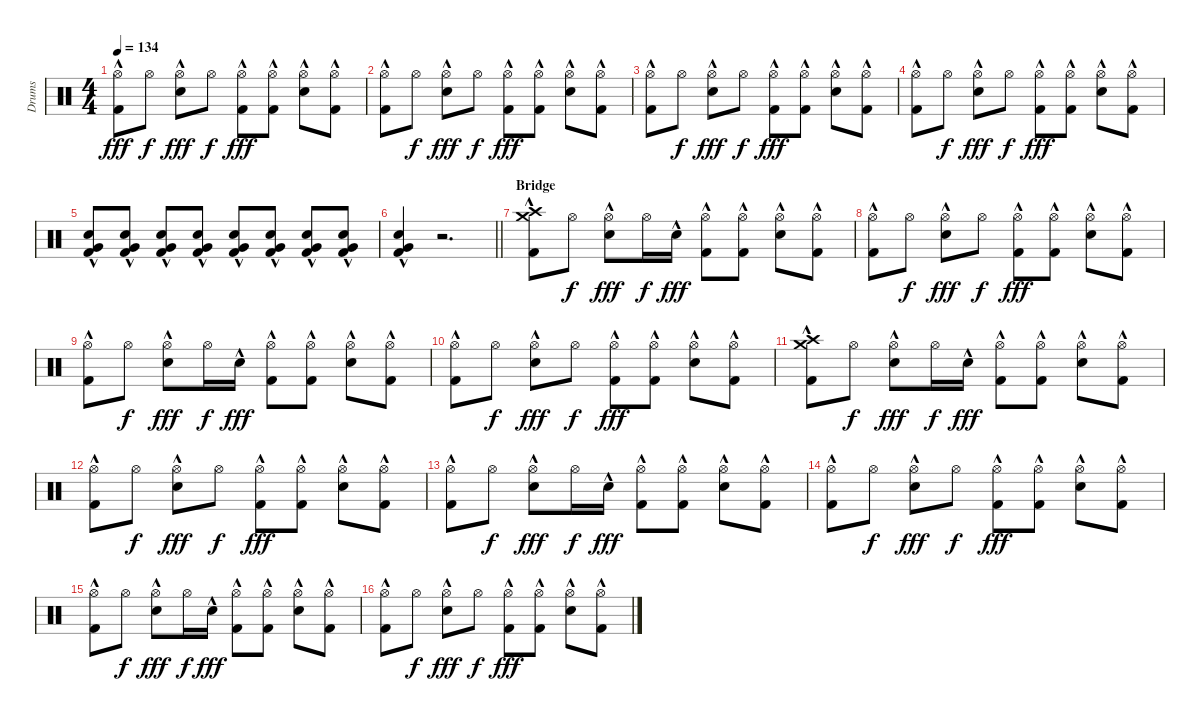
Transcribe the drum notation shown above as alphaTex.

\track ("Drums" "Drums") {instrument percussion}
\staff {score}
\articulation defaults
\ts (4 4)
\tempo 134
\clef neutral
\ks c
("Hi-Hat (open)" "Kick (hit) 2"{hac}).8{dy fff} "Hi-Hat (open)".8{dy f} ("Hi-Hat (open)" "Snare (hit) 2"{hac}).8{dy fff} "Hi-Hat (open)".8{dy f} ("Hi-Hat (open)" "Kick (hit) 2"{hac}).8{dy fff} ("Hi-Hat (open)" "Kick (hit) 2"{hac}).8 ("Hi-Hat (open)" "Snare (hit) 2"{hac}).8 ("Hi-Hat (open)" "Kick (hit) 2"{hac}).8 |
("Hi-Hat (open)" "Kick (hit) 2"{hac}).8 "Hi-Hat (open)".8{dy f} ("Hi-Hat (open)" "Snare (hit) 2"{hac}).8{dy fff} "Hi-Hat (open)".8{dy f} ("Hi-Hat (open)" "Kick (hit) 2"{hac}).8{dy fff} ("Hi-Hat (open)" "Kick (hit) 2"{hac}).8 ("Hi-Hat (open)" "Snare (hit) 2"{hac}).8 ("Hi-Hat (open)" "Kick (hit) 2"{hac}).8 |
("Hi-Hat (open)" "Kick (hit) 2"{hac}).8 "Hi-Hat (open)".8{dy f} ("Hi-Hat (open)" "Snare (hit) 2"{hac}).8{dy fff} "Hi-Hat (open)".8{dy f} ("Hi-Hat (open)" "Kick (hit) 2"{hac}).8{dy fff} ("Hi-Hat (open)" "Kick (hit) 2"{hac}).8 ("Hi-Hat (open)" "Snare (hit) 2"{hac}).8 ("Hi-Hat (open)" "Kick (hit) 2"{hac}).8 |
("Hi-Hat (open)" "Kick (hit) 2"{hac}).8 "Hi-Hat (open)".8{dy f} ("Hi-Hat (open)" "Snare (hit) 2"{hac}).8{dy fff} "Hi-Hat (open)".8{dy f} ("Hi-Hat (open)" "Kick (hit) 2"{hac}).8{dy fff} ("Hi-Hat (open)" "Kick (hit) 2"{hac}).8 ("Hi-Hat (open)" "Snare (hit) 2"{hac}).8 ("Hi-Hat (open)" "Kick (hit) 2"{hac}).8 |
("Snare (hit) 2" "Very Low Tom (hit)"{hac} "Kick (hit) 2"{hac}).8 ("Snare (hit) 2" "Very Low Tom (hit)"{hac} "Kick (hit) 2"{hac}).8 ("Snare (hit) 2" "Very Low Tom (hit)"{hac} "Kick (hit) 2"{hac}).8 ("Snare (hit) 2" "Very Low Tom (hit)"{hac} "Kick (hit) 2"{hac}).8 ("Snare (hit) 2" "Very Low Tom (hit)"{hac} "Kick (hit) 2"{hac}).8 ("Snare (hit) 2" "Very Low Tom (hit)"{hac} "Kick (hit) 2"{hac}).8 ("Snare (hit) 2" "Very Low Tom (hit)"{hac} "Kick (hit) 2"{hac}).8 ("Snare (hit) 2" "Very Low Tom (hit)"{hac} "Kick (hit) 2"{hac}).8 |
\barLineRight lightlight
("Snare (hit) 2"{hac} "Very Low Tom (hit)"{hac} "Kick (hit) 2"{hac}).4 r.2{d} |
\section ("" "Bridge")
("Crash medium (hit)" "Crash high (hit)" "Kick (hit) 2"{hac}).8 "Hi-Hat (open)".8{dy f} ("Hi-Hat (open)" "Snare (hit) 2"{hac}).8{dy fff} "Hi-Hat (open)".16{dy f} "Snare (hit) 2"{hac}.16{dy fff} ("Hi-Hat (open)" "Kick (hit) 2"{hac}).8 ("Hi-Hat (open)"{hac} "Kick (hit) 2"{hac}).8 ("Hi-Hat (open)" "Snare (hit) 2"{hac}).8 ("Hi-Hat (open)" "Kick (hit) 2"{hac}).8 |
("Hi-Hat (open)" "Kick (hit) 2"{hac}).8 "Hi-Hat (open)".8{dy f} ("Hi-Hat (open)" "Snare (hit) 2"{hac}).8{dy fff} "Hi-Hat (open)".8{dy f} ("Hi-Hat (open)" "Kick (hit) 2"{hac}).8{dy fff} ("Hi-Hat (open)"{hac} "Kick (hit) 2"{hac}).8 ("Hi-Hat (open)" "Snare (hit) 2"{hac}).8 ("Hi-Hat (open)" "Kick (hit) 2"{hac}).8 |
("Hi-Hat (open)" "Kick (hit) 2"{hac}).8 "Hi-Hat (open)".8{dy f} ("Hi-Hat (open)" "Snare (hit) 2"{hac}).8{dy fff} "Hi-Hat (open)".16{dy f} "Snare (hit) 2"{hac}.16{dy fff} ("Hi-Hat (open)" "Kick (hit) 2"{hac}).8 ("Hi-Hat (open)"{hac} "Kick (hit) 2"{hac}).8 ("Hi-Hat (open)" "Snare (hit) 2"{hac}).8 ("Hi-Hat (open)" "Kick (hit) 2"{hac}).8 |
("Hi-Hat (open)" "Kick (hit) 2"{hac}).8 "Hi-Hat (open)".8{dy f} ("Hi-Hat (open)" "Snare (hit) 2"{hac}).8{dy fff} "Hi-Hat (open)".8{dy f} ("Hi-Hat (open)" "Kick (hit) 2"{hac}).8{dy fff} ("Hi-Hat (open)"{hac} "Kick (hit) 2"{hac}).8 ("Hi-Hat (open)"{hac} "Snare (hit) 2"{hac}).8 ("Hi-Hat (open)" "Kick (hit) 2"{hac}).8 |
("Crash medium (hit)" "Crash high (hit)" "Kick (hit) 2"{hac}).8 "Hi-Hat (open)".8{dy f} ("Hi-Hat (open)" "Snare (hit) 2"{hac}).8{dy fff} "Hi-Hat (open)".16{dy f} "Snare (hit) 2"{hac}.16{dy fff} ("Hi-Hat (open)" "Kick (hit) 2"{hac}).8 ("Hi-Hat (open)"{hac} "Kick (hit) 2"{hac}).8 ("Hi-Hat (open)" "Snare (hit) 2"{hac}).8 ("Hi-Hat (open)" "Kick (hit) 2"{hac}).8 |
("Hi-Hat (open)" "Kick (hit) 2"{hac}).8 "Hi-Hat (open)".8{dy f} ("Hi-Hat (open)" "Snare (hit) 2"{hac}).8{dy fff} "Hi-Hat (open)".8{dy f} ("Hi-Hat (open)" "Kick (hit) 2"{hac}).8{dy fff} ("Hi-Hat (open)"{hac} "Kick (hit) 2"{hac}).8 ("Hi-Hat (open)" "Snare (hit) 2"{hac}).8 ("Hi-Hat (open)" "Kick (hit) 2"{hac}).8 |
("Hi-Hat (open)" "Kick (hit) 2"{hac}).8 "Hi-Hat (open)".8{dy f} ("Hi-Hat (open)" "Snare (hit) 2"{hac}).8{dy fff} "Hi-Hat (open)".16{dy f} "Snare (hit) 2"{hac}.16{dy fff} ("Hi-Hat (open)" "Kick (hit) 2"{hac}).8 ("Hi-Hat (open)"{hac} "Kick (hit) 2"{hac}).8 ("Hi-Hat (open)" "Snare (hit) 2"{hac}).8 ("Hi-Hat (open)" "Kick (hit) 2"{hac}).8 |
("Hi-Hat (open)" "Kick (hit) 2"{hac}).8 "Hi-Hat (open)".8{dy f} ("Hi-Hat (open)" "Snare (hit) 2"{hac}).8{dy fff} "Hi-Hat (open)".8{dy f} ("Hi-Hat (open)" "Kick (hit) 2"{hac}).8{dy fff} ("Hi-Hat (open)"{hac} "Kick (hit) 2"{hac}).8 ("Hi-Hat (open)" "Snare (hit) 2"{hac}).8 ("Hi-Hat (open)" "Kick (hit) 2"{hac}).8 |
("Hi-Hat (open)" "Kick (hit) 2"{hac}).8 "Hi-Hat (open)".8{dy f} ("Hi-Hat (open)" "Snare (hit) 2"{hac}).8{dy fff} "Hi-Hat (open)".16{dy f} "Snare (hit) 2"{hac}.16{dy fff} ("Hi-Hat (open)" "Kick (hit) 2"{hac}).8 ("Hi-Hat (open)"{hac} "Kick (hit) 2"{hac}).8 ("Hi-Hat (open)" "Snare (hit) 2"{hac}).8 ("Hi-Hat (open)" "Kick (hit) 2"{hac}).8 |
("Hi-Hat (open)" "Kick (hit) 2"{hac}).8 "Hi-Hat (open)".8{dy f} ("Hi-Hat (open)" "Snare (hit) 2"{hac}).8{dy fff} "Hi-Hat (open)".8{dy f} ("Hi-Hat (open)" "Kick (hit) 2"{hac}).8{dy fff} ("Hi-Hat (open)"{hac} "Kick (hit) 2"{hac}).8 ("Hi-Hat (open)" "Snare (hit) 2"{hac}).8 ("Hi-Hat (open)" "Kick (hit) 2"{hac}).8
